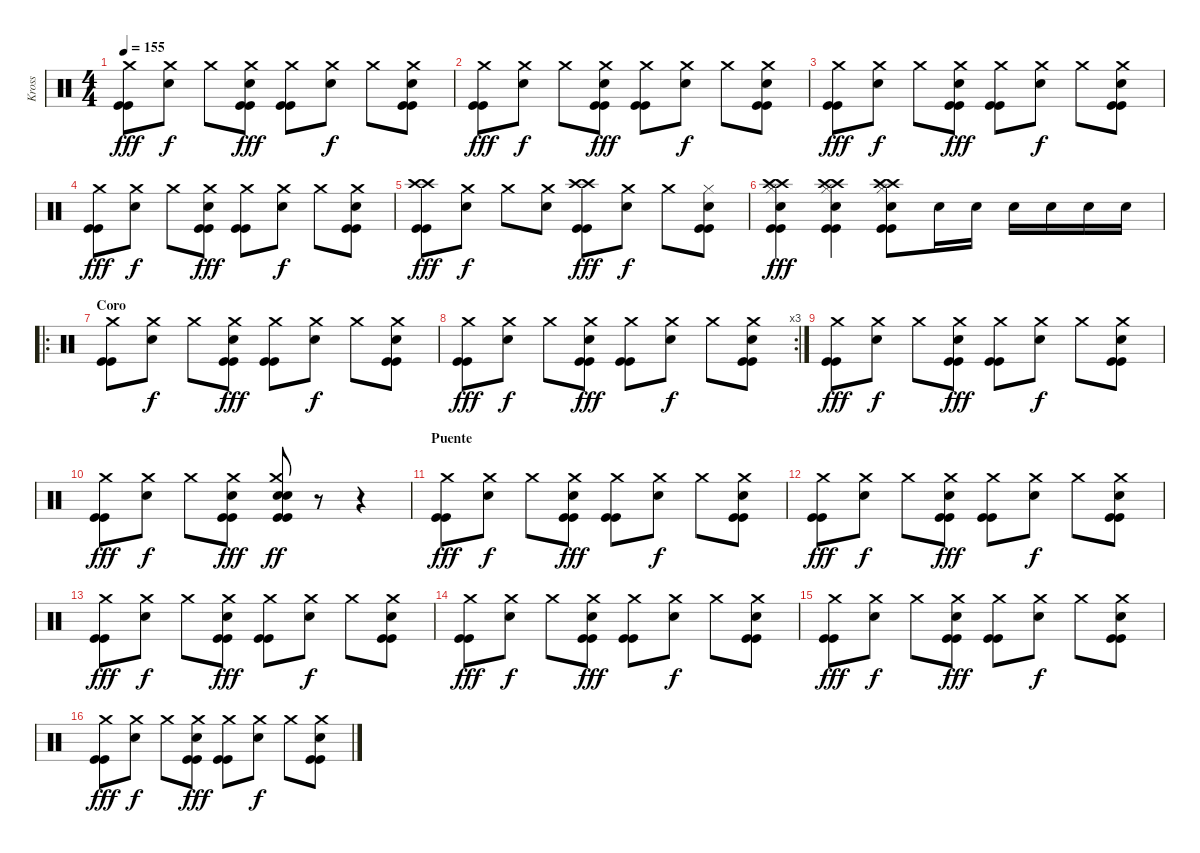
\track ("Kross" "Kross") {instrument percussion}
\staff {score}
\articulation defaults
\ts (4 4)
\tempo 155
\clef neutral
\ks c
("Kick (hit)" "Kick (hit)" "Crash medium (hit)").8{dy fff} ("Crash medium (hit)" "Electric Snare (hit)").8{dy f} "Crash medium (hit)".8 ("Kick (hit)" "Kick (hit)" "Crash medium (hit)" "Electric Snare (hit)").8{dy fff} ("Kick (hit)" "Kick (hit)" "Crash medium (hit)").8 ("Crash medium (hit)" "Electric Snare (hit)").8{dy f} "Crash medium (hit)".8 ("Kick (hit)" "Kick (hit)" "Crash medium (hit)" "Electric Snare (hit)").8 |
("Kick (hit)" "Kick (hit)" "Crash medium (hit)").8{dy fff} ("Crash medium (hit)" "Electric Snare (hit)").8{dy f} "Crash medium (hit)".8 ("Kick (hit)" "Kick (hit)" "Crash medium (hit)" "Electric Snare (hit)").8{dy fff} ("Kick (hit)" "Kick (hit)" "Crash medium (hit)").8 ("Crash medium (hit)" "Electric Snare (hit)").8{dy f} "Crash medium (hit)".8 ("Kick (hit)" "Kick (hit)" "Crash medium (hit)" "Electric Snare (hit)").8 |
("Kick (hit)" "Kick (hit)" "Crash medium (hit)").8{dy fff} ("Crash medium (hit)" "Electric Snare (hit)").8{dy f} "Crash medium (hit)".8 ("Kick (hit)" "Kick (hit)" "Crash medium (hit)" "Electric Snare (hit)").8{dy fff} ("Kick (hit)" "Kick (hit)" "Crash medium (hit)").8 ("Crash medium (hit)" "Electric Snare (hit)").8{dy f} "Crash medium (hit)".8 ("Kick (hit)" "Kick (hit)" "Crash medium (hit)" "Electric Snare (hit)").8 |
("Kick (hit)" "Kick (hit)" "Crash medium (hit)").8{dy fff} ("Crash medium (hit)" "Electric Snare (hit)").8{dy f} "Crash medium (hit)".8 ("Kick (hit)" "Kick (hit)" "Crash medium (hit)" "Electric Snare (hit)").8{dy fff} ("Kick (hit)" "Kick (hit)" "Crash medium (hit)").8 ("Crash medium (hit)" "Electric Snare (hit)").8{dy f} "Crash medium (hit)".8 ("Kick (hit)" "Kick (hit)" "Crash medium (hit)" "Electric Snare (hit)").8 |
("Kick (hit)" "Kick (hit)" "Crash high (hit)" "Crash high (hit)").8{dy fff} ("Crash medium (hit)" "Electric Snare (hit)").8{dy f} "Crash medium (hit)".8 ("Crash medium (hit)" "Electric Snare (hit)").8 ("Kick (hit)" "Kick (hit)" "Crash high (hit)" "Crash high (hit)").8{dy fff} ("Crash medium (hit)" "Electric Snare (hit)").8{dy f} "Crash medium (hit)".8 ("Kick (hit)" "Kick (hit)" "Hi-Hat (closed)" "Electric Snare (hit)").8 |
("Kick (hit)" "Kick (hit)" "Crash high (hit)" "Crash high (hit)" "Hi-Hat (closed)" "Electric Snare (hit)").4{dy fff} ("Kick (hit)" "Kick (hit)" "Crash high (hit)" "Crash high (hit)" "Hi-Hat (closed)" "Electric Snare (hit)").4 ("Kick (hit)" "Kick (hit)" "Crash high (hit)" "Crash high (hit)" "Hi-Hat (closed)" "Electric Snare (hit)").8 "Electric Snare (hit)".16 "Electric Snare (hit)".16 "Electric Snare (hit)".16 "Electric Snare (hit)".16 "Electric Snare (hit)".16 "Electric Snare (hit)".16 |
\ro
\section ("" "Coro")
("Kick (hit)" "Kick (hit)" "Crash medium (hit)").8 ("Crash medium (hit)" "Electric Snare (hit)").8{dy f} "Crash medium (hit)".8 ("Kick (hit)" "Kick (hit)" "Crash medium (hit)" "Electric Snare (hit)").8{dy fff} ("Kick (hit)" "Kick (hit)" "Crash medium (hit)").8 ("Crash medium (hit)" "Electric Snare (hit)").8{dy f} "Crash medium (hit)".8 ("Kick (hit)" "Kick (hit)" "Crash medium (hit)" "Electric Snare (hit)").8 |
\rc 3
("Kick (hit)" "Kick (hit)" "Crash medium (hit)").8{dy fff} ("Crash medium (hit)" "Electric Snare (hit)").8{dy f} "Crash medium (hit)".8 ("Kick (hit)" "Kick (hit)" "Crash medium (hit)" "Electric Snare (hit)").8{dy fff} ("Kick (hit)" "Kick (hit)" "Crash medium (hit)").8 ("Crash medium (hit)" "Electric Snare (hit)").8{dy f} "Crash medium (hit)".8 ("Kick (hit)" "Kick (hit)" "Crash medium (hit)" "Electric Snare (hit)").8 |
("Kick (hit)" "Kick (hit)" "Crash medium (hit)").8{dy fff} ("Crash medium (hit)" "Electric Snare (hit)").8{dy f} "Crash medium (hit)".8 ("Kick (hit)" "Kick (hit)" "Crash medium (hit)" "Electric Snare (hit)").8{dy fff} ("Kick (hit)" "Kick (hit)" "Crash medium (hit)").8 ("Crash medium (hit)" "Electric Snare (hit)").8{dy f} "Crash medium (hit)".8 ("Kick (hit)" "Kick (hit)" "Crash medium (hit)" "Electric Snare (hit)").8 |
("Kick (hit)" "Kick (hit)" "Crash medium (hit)").8{dy fff} ("Crash medium (hit)" "Electric Snare (hit)").8{dy f} "Crash medium (hit)".8 ("Kick (hit)" "Kick (hit)" "Crash medium (hit)" "Electric Snare (hit)").8{dy fff} ("Kick (hit)" "Kick (hit)" "Crash medium (hit)" "Electric Snare (hit)" "Electric Snare (hit)").8{dy ff} r.8 r.4 |
\section ("" "Puente")
("Kick (hit)" "Kick (hit)" "Crash medium (hit)").8{dy fff} ("Crash medium (hit)" "Electric Snare (hit)").8{dy f} "Crash medium (hit)".8 ("Kick (hit)" "Kick (hit)" "Crash medium (hit)" "Electric Snare (hit)").8{dy fff} ("Kick (hit)" "Kick (hit)" "Crash medium (hit)").8 ("Crash medium (hit)" "Electric Snare (hit)").8{dy f} "Crash medium (hit)".8 ("Kick (hit)" "Kick (hit)" "Crash medium (hit)" "Electric Snare (hit)").8 |
("Kick (hit)" "Kick (hit)" "Crash medium (hit)").8{dy fff} ("Crash medium (hit)" "Electric Snare (hit)").8{dy f} "Crash medium (hit)".8 ("Kick (hit)" "Kick (hit)" "Crash medium (hit)" "Electric Snare (hit)").8{dy fff} ("Kick (hit)" "Kick (hit)" "Crash medium (hit)").8 ("Crash medium (hit)" "Electric Snare (hit)").8{dy f} "Crash medium (hit)".8 ("Kick (hit)" "Kick (hit)" "Crash medium (hit)" "Electric Snare (hit)").8 |
("Kick (hit)" "Kick (hit)" "Crash medium (hit)").8{dy fff} ("Crash medium (hit)" "Electric Snare (hit)").8{dy f} "Crash medium (hit)".8 ("Kick (hit)" "Kick (hit)" "Crash medium (hit)" "Electric Snare (hit)").8{dy fff} ("Kick (hit)" "Kick (hit)" "Crash medium (hit)").8 ("Crash medium (hit)" "Electric Snare (hit)").8{dy f} "Crash medium (hit)".8 ("Kick (hit)" "Kick (hit)" "Crash medium (hit)" "Electric Snare (hit)").8 |
("Kick (hit)" "Kick (hit)" "Crash medium (hit)").8{dy fff} ("Crash medium (hit)" "Electric Snare (hit)").8{dy f} "Crash medium (hit)".8 ("Kick (hit)" "Kick (hit)" "Crash medium (hit)" "Electric Snare (hit)").8{dy fff} ("Kick (hit)" "Kick (hit)" "Crash medium (hit)").8 ("Crash medium (hit)" "Electric Snare (hit)").8{dy f} "Crash medium (hit)".8 ("Kick (hit)" "Kick (hit)" "Crash medium (hit)" "Electric Snare (hit)").8 |
("Kick (hit)" "Kick (hit)" "Crash medium (hit)").8{dy fff} ("Crash medium (hit)" "Electric Snare (hit)").8{dy f} "Crash medium (hit)".8 ("Kick (hit)" "Kick (hit)" "Crash medium (hit)" "Electric Snare (hit)").8{dy fff} ("Kick (hit)" "Kick (hit)" "Crash medium (hit)").8 ("Crash medium (hit)" "Electric Snare (hit)").8{dy f} "Crash medium (hit)".8 ("Kick (hit)" "Kick (hit)" "Crash medium (hit)" "Electric Snare (hit)").8 |
("Kick (hit)" "Kick (hit)" "Crash medium (hit)").8{dy fff} ("Crash medium (hit)" "Electric Snare (hit)").8{dy f} "Crash medium (hit)".8 ("Kick (hit)" "Kick (hit)" "Crash medium (hit)" "Electric Snare (hit)").8{dy fff} ("Kick (hit)" "Kick (hit)" "Crash medium (hit)").8 ("Crash medium (hit)" "Electric Snare (hit)").8{dy f} "Crash medium (hit)".8 ("Kick (hit)" "Kick (hit)" "Crash medium (hit)" "Electric Snare (hit)").8
